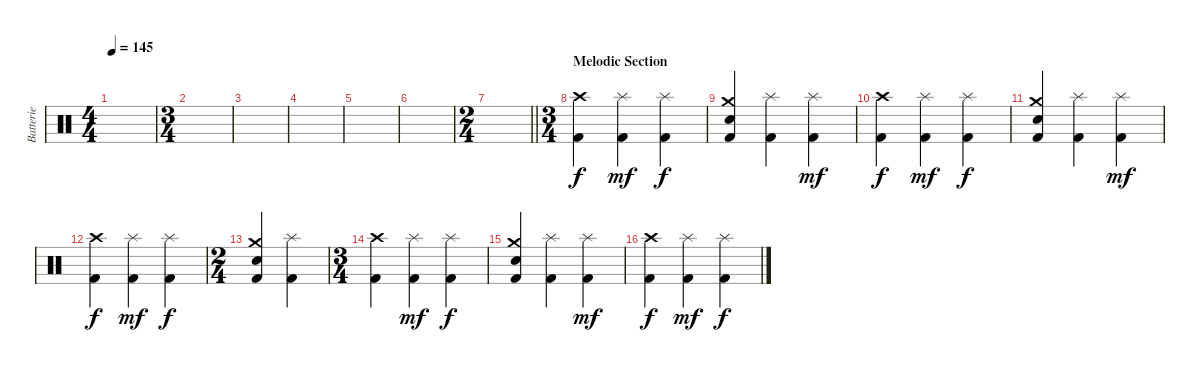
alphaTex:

\track ("Batterie" "Batterie") {instrument percussion}
\staff {score}
\articulation defaults
\ts (4 4)
\tempo 145
\clef neutral
\ks c
|
\ts (3 4)
|
|
|
|
|
\ts (2 4)
\barLineRight lightlight
|
\ts (3 4)
\section ("" "Melodic Section")
("Crash high (hit)" "Kick (hit) 2").4{dy f} ("Splash (hit)" "Kick (hit) 2").4{dy mf} ("Splash (hit)" "Kick (hit) 2").4{dy f} |
("Crash medium (hit)" "Electric Snare (hit)" "Kick (hit) 2").4 ("Splash (hit)" "Kick (hit) 2").4 ("Splash (hit)" "Kick (hit) 2").4{dy mf} |
("Crash high (hit)" "Kick (hit) 2").4{dy f} ("Splash (hit)" "Kick (hit) 2").4{dy mf} ("Splash (hit)" "Kick (hit) 2").4{dy f} |
("Crash medium (hit)" "Electric Snare (hit)" "Kick (hit) 2").4 ("Splash (hit)" "Kick (hit) 2").4 ("Splash (hit)" "Kick (hit) 2").4{dy mf} |
("Crash high (hit)" "Kick (hit) 2").4{dy f} ("Splash (hit)" "Kick (hit) 2").4{dy mf} ("Splash (hit)" "Kick (hit) 2").4{dy f} |
\ts (2 4)
("Crash medium (hit)" "Electric Snare (hit)" "Kick (hit) 2").4 ("Splash (hit)" "Kick (hit) 2").4 |
\ts (3 4)
("Crash high (hit)" "Kick (hit) 2").4 ("Splash (hit)" "Kick (hit) 2").4{dy mf} ("Splash (hit)" "Kick (hit) 2").4{dy f} |
("Crash medium (hit)" "Electric Snare (hit)" "Kick (hit) 2").4 ("Splash (hit)" "Kick (hit) 2").4 ("Splash (hit)" "Kick (hit) 2").4{dy mf} |
("Crash high (hit)" "Kick (hit) 2").4{dy f} ("Splash (hit)" "Kick (hit) 2").4{dy mf} ("Splash (hit)" "Kick (hit) 2").4{dy f}
